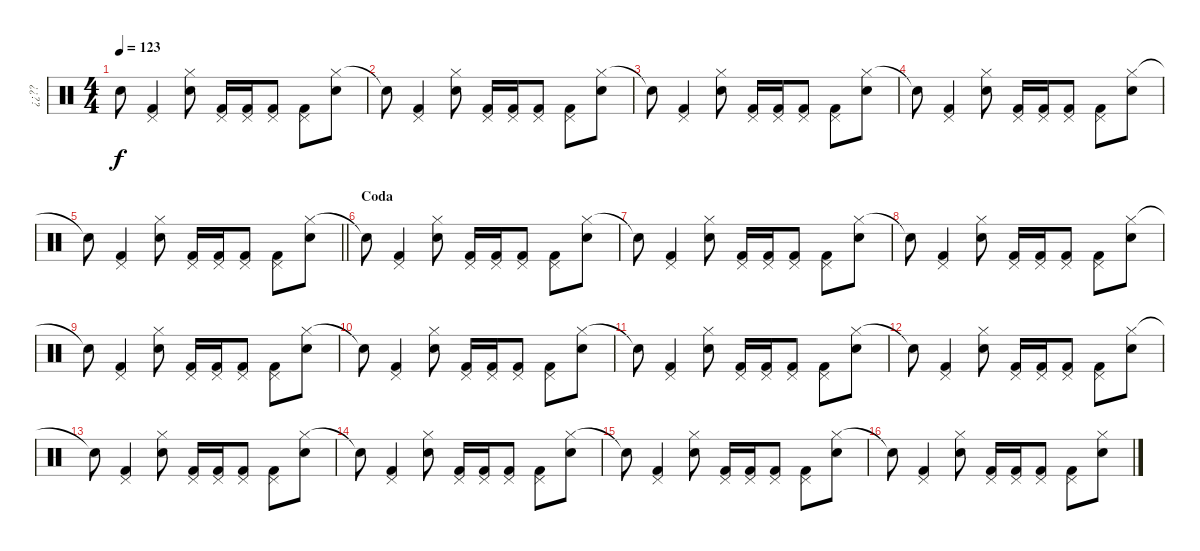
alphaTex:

\track ("¿¿??" "¿¿??") {instrument percussion}
\staff {score}
\articulation defaults
\ts (4 4)
\tempo 123
\clef neutral
\ks c "Snare (hit)"{t}.8{dy f}
("Pedal Hi-Hat (hit)" "Kick (hit) 2").4 ("Hi-Hat (closed)" "Snare (hit) 2").8 ("Pedal Hi-Hat (hit)" "Kick (hit) 2").16 ("Pedal Hi-Hat (hit)" "Kick (hit) 2").16 ("Pedal Hi-Hat (hit)" "Kick (hit) 2").8 ("Pedal Hi-Hat (hit)" "Kick (hit) 2").8 ("Hi-Hat (closed)" "Snare (hit) 2").8 |
"Snare (hit)"{t}.8 ("Pedal Hi-Hat (hit)" "Kick (hit) 2").4 ("Hi-Hat (closed)" "Snare (hit) 2").8 ("Pedal Hi-Hat (hit)" "Kick (hit) 2").16 ("Pedal Hi-Hat (hit)" "Kick (hit) 2").16 ("Pedal Hi-Hat (hit)" "Kick (hit) 2").8 ("Pedal Hi-Hat (hit)" "Kick (hit) 2").8 ("Hi-Hat (closed)" "Snare (hit) 2").8 |
"Snare (hit)"{t}.8 ("Pedal Hi-Hat (hit)" "Kick (hit) 2").4 ("Hi-Hat (closed)" "Snare (hit) 2").8 ("Pedal Hi-Hat (hit)" "Kick (hit) 2").16 ("Pedal Hi-Hat (hit)" "Kick (hit) 2").16 ("Pedal Hi-Hat (hit)" "Kick (hit) 2").8 ("Pedal Hi-Hat (hit)" "Kick (hit) 2").8 ("Hi-Hat (closed)" "Snare (hit) 2").8 |
"Snare (hit)"{t}.8 ("Pedal Hi-Hat (hit)" "Kick (hit) 2").4 ("Hi-Hat (closed)" "Snare (hit) 2").8 ("Pedal Hi-Hat (hit)" "Kick (hit) 2").16 ("Pedal Hi-Hat (hit)" "Kick (hit) 2").16 ("Pedal Hi-Hat (hit)" "Kick (hit) 2").8 ("Pedal Hi-Hat (hit)" "Kick (hit) 2").8 ("Hi-Hat (closed)" "Snare (hit) 2").8 |
\barLineRight lightlight "Snare (hit)"{t}.8
("Pedal Hi-Hat (hit)" "Kick (hit) 2").4 ("Hi-Hat (closed)" "Snare (hit) 2").8 ("Pedal Hi-Hat (hit)" "Kick (hit) 2").16 ("Pedal Hi-Hat (hit)" "Kick (hit) 2").16 ("Pedal Hi-Hat (hit)" "Kick (hit) 2").8 ("Pedal Hi-Hat (hit)" "Kick (hit) 2").8 ("Hi-Hat (closed)" "Snare (hit) 2").8 |
\section ("" "Coda")
"Snare (hit)"{t}.8 ("Pedal Hi-Hat (hit)" "Kick (hit) 2").4 ("Hi-Hat (closed)" "Snare (hit) 2").8 ("Pedal Hi-Hat (hit)" "Kick (hit) 2").16 ("Pedal Hi-Hat (hit)" "Kick (hit) 2").16 ("Pedal Hi-Hat (hit)" "Kick (hit) 2").8 ("Pedal Hi-Hat (hit)" "Kick (hit) 2").8 ("Hi-Hat (closed)" "Snare (hit) 2").8 |
"Snare (hit)"{t}.8 ("Pedal Hi-Hat (hit)" "Kick (hit) 2").4 ("Hi-Hat (closed)" "Snare (hit) 2").8 ("Pedal Hi-Hat (hit)" "Kick (hit) 2").16 ("Pedal Hi-Hat (hit)" "Kick (hit) 2").16 ("Pedal Hi-Hat (hit)" "Kick (hit) 2").8 ("Pedal Hi-Hat (hit)" "Kick (hit) 2").8 ("Hi-Hat (closed)" "Snare (hit) 2").8 |
"Snare (hit)"{t}.8 ("Pedal Hi-Hat (hit)" "Kick (hit) 2").4 ("Hi-Hat (closed)" "Snare (hit) 2").8 ("Pedal Hi-Hat (hit)" "Kick (hit) 2").16 ("Pedal Hi-Hat (hit)" "Kick (hit) 2").16 ("Pedal Hi-Hat (hit)" "Kick (hit) 2").8 ("Pedal Hi-Hat (hit)" "Kick (hit) 2").8 ("Hi-Hat (closed)" "Snare (hit) 2").8 |
"Snare (hit)"{t}.8 ("Pedal Hi-Hat (hit)" "Kick (hit) 2").4 ("Hi-Hat (closed)" "Snare (hit) 2").8 ("Pedal Hi-Hat (hit)" "Kick (hit) 2").16 ("Pedal Hi-Hat (hit)" "Kick (hit) 2").16 ("Pedal Hi-Hat (hit)" "Kick (hit) 2").8 ("Pedal Hi-Hat (hit)" "Kick (hit) 2").8 ("Hi-Hat (closed)" "Snare (hit) 2").8 |
"Snare (hit)"{t}.8 ("Pedal Hi-Hat (hit)" "Kick (hit) 2").4 ("Hi-Hat (closed)" "Snare (hit) 2").8 ("Pedal Hi-Hat (hit)" "Kick (hit) 2").16 ("Pedal Hi-Hat (hit)" "Kick (hit) 2").16 ("Pedal Hi-Hat (hit)" "Kick (hit) 2").8 ("Pedal Hi-Hat (hit)" "Kick (hit) 2").8 ("Hi-Hat (closed)" "Snare (hit) 2").8 |
"Snare (hit)"{t}.8 ("Pedal Hi-Hat (hit)" "Kick (hit) 2").4 ("Hi-Hat (closed)" "Snare (hit) 2").8 ("Pedal Hi-Hat (hit)" "Kick (hit) 2").16 ("Pedal Hi-Hat (hit)" "Kick (hit) 2").16 ("Pedal Hi-Hat (hit)" "Kick (hit) 2").8 ("Pedal Hi-Hat (hit)" "Kick (hit) 2").8 ("Hi-Hat (closed)" "Snare (hit) 2").8 |
"Snare (hit)"{t}.8 ("Pedal Hi-Hat (hit)" "Kick (hit) 2").4 ("Hi-Hat (closed)" "Snare (hit) 2").8 ("Pedal Hi-Hat (hit)" "Kick (hit) 2").16 ("Pedal Hi-Hat (hit)" "Kick (hit) 2").16 ("Pedal Hi-Hat (hit)" "Kick (hit) 2").8 ("Pedal Hi-Hat (hit)" "Kick (hit) 2").8 ("Hi-Hat (closed)" "Snare (hit) 2").8 |
"Snare (hit)"{t}.8 ("Pedal Hi-Hat (hit)" "Kick (hit) 2").4 ("Hi-Hat (closed)" "Snare (hit) 2").8 ("Pedal Hi-Hat (hit)" "Kick (hit) 2").16 ("Pedal Hi-Hat (hit)" "Kick (hit) 2").16 ("Pedal Hi-Hat (hit)" "Kick (hit) 2").8 ("Pedal Hi-Hat (hit)" "Kick (hit) 2").8 ("Hi-Hat (closed)" "Snare (hit) 2").8 |
"Snare (hit)"{t}.8 ("Pedal Hi-Hat (hit)" "Kick (hit) 2").4 ("Hi-Hat (closed)" "Snare (hit) 2").8 ("Pedal Hi-Hat (hit)" "Kick (hit) 2").16 ("Pedal Hi-Hat (hit)" "Kick (hit) 2").16 ("Pedal Hi-Hat (hit)" "Kick (hit) 2").8 ("Pedal Hi-Hat (hit)" "Kick (hit) 2").8 ("Hi-Hat (closed)" "Snare (hit) 2").8 |
"Snare (hit)"{t}.8 ("Pedal Hi-Hat (hit)" "Kick (hit) 2").4 ("Hi-Hat (closed)" "Snare (hit) 2").8 ("Pedal Hi-Hat (hit)" "Kick (hit) 2").16 ("Pedal Hi-Hat (hit)" "Kick (hit) 2").16 ("Pedal Hi-Hat (hit)" "Kick (hit) 2").8 ("Pedal Hi-Hat (hit)" "Kick (hit) 2").8 ("Hi-Hat (closed)" "Snare (hit) 2").8 |
"Snare (hit)"{t}.8 ("Pedal Hi-Hat (hit)" "Kick (hit) 2").4 ("Hi-Hat (closed)" "Snare (hit) 2").8 ("Pedal Hi-Hat (hit)" "Kick (hit) 2").16 ("Pedal Hi-Hat (hit)" "Kick (hit) 2").16 ("Pedal Hi-Hat (hit)" "Kick (hit) 2").8 ("Pedal Hi-Hat (hit)" "Kick (hit) 2").8 ("Hi-Hat (closed)" "Snare (hit) 2").8
